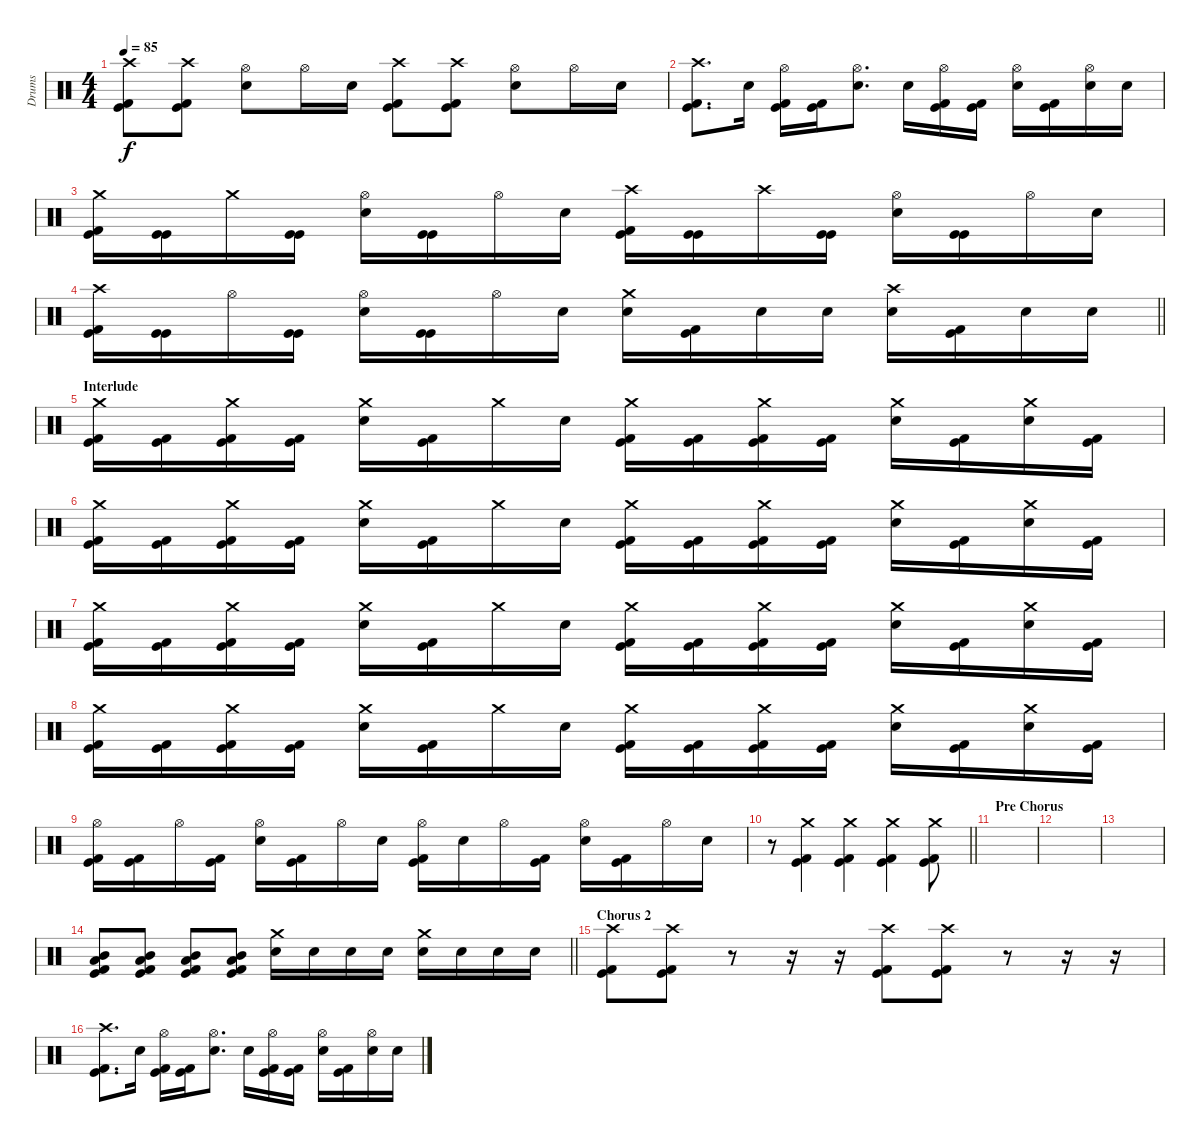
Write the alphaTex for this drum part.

\track ("Drums" "Drums") {instrument percussion}
\staff {score}
\articulation defaults
\ts (4 4)
\tempo 85
\clef neutral
\ks c
("Crash high (hit)" "Kick (hit)" "Kick (hit) 2").8{dy f} ("Crash high (hit)" "Kick (hit)" "Kick (hit) 2").8 ("Electric Snare (hit)" "Hi-Hat (open)").8 "Hi-Hat (open)".16 "Electric Snare (hit)".16 ("Crash high (hit)" "Kick (hit)" "Kick (hit) 2").8 ("Crash high (hit)" "Kick (hit)" "Kick (hit) 2").8 ("Electric Snare (hit)" "Hi-Hat (open)").8 "Hi-Hat (open)".16 "Electric Snare (hit)".16 |
("Crash high (hit)" "Kick (hit)" "Kick (hit) 2").8{d} "Electric Snare (hit)".16 ("Hi-Hat (open)" "Kick (hit)" "Kick (hit) 2").16 ("Kick (hit)" "Kick (hit) 2").16 ("Electric Snare (hit)" "Hi-Hat (open)").8{d} "Electric Snare (hit)".16 ("Hi-Hat (open)" "Kick (hit)" "Kick (hit) 2").16 ("Kick (hit)" "Kick (hit) 2").16 ("Electric Snare (hit)" "Hi-Hat (open)").16 ("Kick (hit)" "Kick (hit) 2").16 ("Electric Snare (hit)" "Hi-Hat (open)").16 "Electric Snare (hit)".16 |
("Crash medium (hit)" "Kick (hit) 2" "Kick (hit)").16 ("Kick (hit)" "Kick (hit)").16 "Crash medium (hit)".16 ("Kick (hit)" "Kick (hit)").16 ("Electric Snare (hit)" "Hi-Hat (open)").16 ("Kick (hit)" "Kick (hit)").16 "Hi-Hat (open)".16 "Electric Snare (hit)".16 ("Crash high (hit)" "Kick (hit) 2" "Kick (hit)").16 ("Kick (hit)" "Kick (hit)").16 "Crash high (hit)".16 ("Kick (hit)" "Kick (hit)").16 ("Electric Snare (hit)" "Hi-Hat (open)").16 ("Kick (hit)" "Kick (hit)").16 "Hi-Hat (open)".16 "Electric Snare (hit)".16 |
\barLineRight lightlight
("Crash high (hit)" "Kick (hit) 2" "Kick (hit)").16 ("Kick (hit)" "Kick (hit)").16 "Hi-Hat (open)".16 ("Kick (hit)" "Kick (hit)").16 ("Electric Snare (hit)" "Hi-Hat (open)").16 ("Kick (hit)" "Kick (hit)").16 "Hi-Hat (open)".16 "Electric Snare (hit)".16 ("Electric Snare (hit)" "Crash medium (hit)").16 ("Kick (hit) 2" "Kick (hit)").16 "Electric Snare (hit)".16 "Electric Snare (hit)".16 ("Electric Snare (hit)" "Crash high (hit)").16 ("Kick (hit) 2" "Kick (hit)").16 "Electric Snare (hit)".16 "Electric Snare (hit)".16 |
\section ("" "Interlude")
("Crash medium (hit)" "Kick (hit)" "Kick (hit) 2").16 ("Kick (hit)" "Kick (hit) 2").16 ("Crash medium (hit)" "Kick (hit)" "Kick (hit) 2").16 ("Kick (hit)" "Kick (hit) 2").16 ("Electric Snare (hit)" "Crash medium (hit)").16 ("Kick (hit)" "Kick (hit) 2").16 "Crash medium (hit)".16 "Electric Snare (hit)".16 ("Crash medium (hit)" "Kick (hit)" "Kick (hit) 2").16 ("Kick (hit)" "Kick (hit) 2").16 ("Crash medium (hit)" "Kick (hit)" "Kick (hit) 2").16 ("Kick (hit)" "Kick (hit) 2").16 ("Electric Snare (hit)" "Crash medium (hit)").16 ("Kick (hit)" "Kick (hit) 2").16 ("Electric Snare (hit)" "Crash medium (hit)").16 ("Kick (hit)" "Kick (hit) 2").16 |
("Crash medium (hit)" "Kick (hit)" "Kick (hit) 2").16 ("Kick (hit)" "Kick (hit) 2").16 ("Crash medium (hit)" "Kick (hit)" "Kick (hit) 2").16 ("Kick (hit)" "Kick (hit) 2").16 ("Electric Snare (hit)" "Crash medium (hit)").16 ("Kick (hit)" "Kick (hit) 2").16 "Crash medium (hit)".16 "Electric Snare (hit)".16 ("Crash medium (hit)" "Kick (hit)" "Kick (hit) 2").16 ("Kick (hit)" "Kick (hit) 2").16 ("Crash medium (hit)" "Kick (hit)" "Kick (hit) 2").16 ("Kick (hit)" "Kick (hit) 2").16 ("Electric Snare (hit)" "Crash medium (hit)").16 ("Kick (hit)" "Kick (hit) 2").16 ("Electric Snare (hit)" "Crash medium (hit)").16 ("Kick (hit)" "Kick (hit) 2").16 |
("Crash medium (hit)" "Kick (hit)" "Kick (hit) 2").16 ("Kick (hit)" "Kick (hit) 2").16 ("Crash medium (hit)" "Kick (hit)" "Kick (hit) 2").16 ("Kick (hit)" "Kick (hit) 2").16 ("Electric Snare (hit)" "Crash medium (hit)").16 ("Kick (hit)" "Kick (hit) 2").16 "Crash medium (hit)".16 "Electric Snare (hit)".16 ("Crash medium (hit)" "Kick (hit)" "Kick (hit) 2").16 ("Kick (hit)" "Kick (hit) 2").16 ("Crash medium (hit)" "Kick (hit)" "Kick (hit) 2").16 ("Kick (hit)" "Kick (hit) 2").16 ("Electric Snare (hit)" "Crash medium (hit)").16 ("Kick (hit)" "Kick (hit) 2").16 ("Electric Snare (hit)" "Crash medium (hit)").16 ("Kick (hit)" "Kick (hit) 2").16 |
("Crash medium (hit)" "Kick (hit)" "Kick (hit) 2").16 ("Kick (hit)" "Kick (hit) 2").16 ("Crash medium (hit)" "Kick (hit)" "Kick (hit) 2").16 ("Kick (hit)" "Kick (hit) 2").16 ("Electric Snare (hit)" "Crash medium (hit)").16 ("Kick (hit)" "Kick (hit) 2").16 "Crash medium (hit)".16 "Electric Snare (hit)".16 ("Crash medium (hit)" "Kick (hit)" "Kick (hit) 2").16 ("Kick (hit)" "Kick (hit) 2").16 ("Crash medium (hit)" "Kick (hit)" "Kick (hit) 2").16 ("Kick (hit)" "Kick (hit) 2").16 ("Electric Snare (hit)" "Crash medium (hit)").16 ("Kick (hit)" "Kick (hit) 2").16 ("Electric Snare (hit)" "Crash medium (hit)").16 ("Kick (hit)" "Kick (hit) 2").16 |
("Hi-Hat (open)" "Kick (hit) 2" "Kick (hit)").16 ("Kick (hit) 2" "Kick (hit)").16 "Hi-Hat (open)".16 ("Kick (hit) 2" "Kick (hit)").16 ("Electric Snare (hit)" "Hi-Hat (open)").16 ("Kick (hit) 2" "Kick (hit)").16 "Hi-Hat (open)".16 "Electric Snare (hit)".16 ("Hi-Hat (open)" "Kick (hit) 2" "Kick (hit)").16 "Electric Snare (hit)".16 "Hi-Hat (open)".16 ("Kick (hit) 2" "Kick (hit)").16 ("Electric Snare (hit)" "Hi-Hat (open)").16 ("Kick (hit) 2" "Kick (hit)").16 "Hi-Hat (open)".16 "Electric Snare (hit)".16 |
\barLineRight lightlight
r.8 ("Crash medium (hit)" "Kick (hit) 2" "Kick (hit)").4 ("Crash medium (hit)" "Kick (hit) 2" "Kick (hit)").4 ("Crash medium (hit)" "Kick (hit) 2" "Kick (hit)").4 ("Crash medium (hit)" "Kick (hit) 2" "Kick (hit)").8 |
\section ("" "Pre Chorus")
|
|
|
\barLineRight lightlight
("Low Tom (hit)" "Mid Tom (hit)" "Kick (hit) 2" "Kick (hit)").8 ("Low Tom (hit)" "Mid Tom (hit)" "Kick (hit) 2" "Kick (hit)").8 ("Low Tom (hit)" "Mid Tom (hit)" "Kick (hit) 2" "Kick (hit)").8 ("Low Tom (hit)" "Mid Tom (hit)" "Kick (hit) 2" "Kick (hit)").8 ("Electric Snare (hit)" "Crash medium (hit)").16 "Electric Snare (hit)".16 "Electric Snare (hit)".16 "Electric Snare (hit)".16 ("Electric Snare (hit)" "Crash medium (hit)").16 "Electric Snare (hit)".16 "Electric Snare (hit)".16 "Electric Snare (hit)".16 |
\section ("" "Chorus 2")
("Crash high (hit)" "Kick (hit)" "Kick (hit) 2").8 ("Crash high (hit)" "Kick (hit)" "Kick (hit) 2").8 r.8 r.16 r.16 ("Crash high (hit)" "Kick (hit)" "Kick (hit) 2").8 ("Crash high (hit)" "Kick (hit)" "Kick (hit) 2").8 r.8 r.16 r.16 |
("Crash high (hit)" "Kick (hit)" "Kick (hit) 2").8{d} "Electric Snare (hit)".16 ("Hi-Hat (open)" "Kick (hit)" "Kick (hit) 2").16 ("Kick (hit)" "Kick (hit) 2").16 ("Electric Snare (hit)" "Hi-Hat (open)").8{d} "Electric Snare (hit)".16 ("Hi-Hat (open)" "Kick (hit)" "Kick (hit) 2").16 ("Kick (hit)" "Kick (hit) 2").16 ("Electric Snare (hit)" "Hi-Hat (open)").16 ("Kick (hit)" "Kick (hit) 2").16 ("Electric Snare (hit)" "Hi-Hat (open)").16 "Electric Snare (hit)".16
